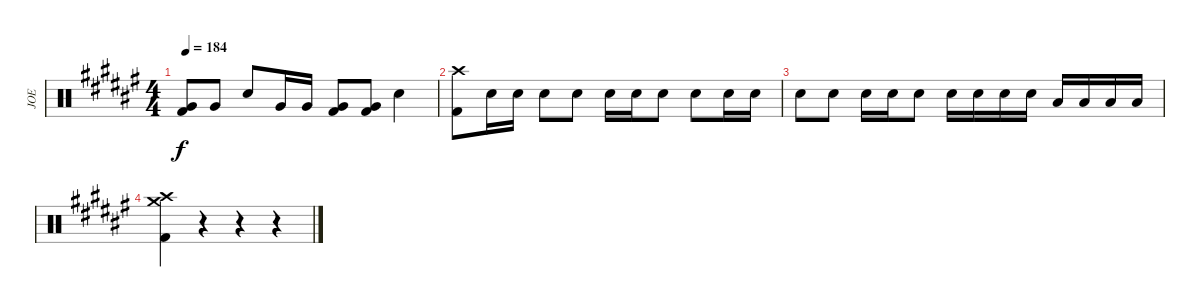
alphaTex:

\track ("JOE" "JOE") {instrument percussion}
\staff {score}
\articulation defaults
\ts (4 4)
\tempo 184
\clef neutral
\ks f#
("Very Low Tom (hit)" "Kick (hit) 2").8{dy f} "Very Low Tom (hit)".8 "Snare (hit) 2".8 "Very Low Tom (hit)".16 "Very Low Tom (hit)".16 ("Very Low Tom (hit)" "Kick (hit) 2").8 ("Very Low Tom (hit)" "Kick (hit) 2").8 "Snare (hit) 2".4 |
("Crash high (hit)" "Kick (hit) 2").8 "Snare (hit) 2".16 "Snare (hit) 2".16 "Snare (hit) 2".8 "Snare (hit) 2".8 "Snare (hit) 2".16 "Snare (hit) 2".16 "Snare (hit) 2".8 "Snare (hit) 2".8 "Snare (hit) 2".16 "Snare (hit) 2".16 |
"Snare (hit) 2".8 "Snare (hit) 2".8 "Snare (hit) 2".16 "Snare (hit) 2".16 "Snare (hit) 2".8 "Snare (hit) 2".16 "Snare (hit) 2".16 "Snare (hit) 2".16 "Snare (hit) 2".16 "Low Tom (hit)".16 "Low Tom (hit)".16 "Low Tom (hit)".16 "Low Tom (hit)".16 |
("Crash high (hit)" "Kick (hit) 2" "Crash medium (hit)").4 r.4 r.4 r.4
